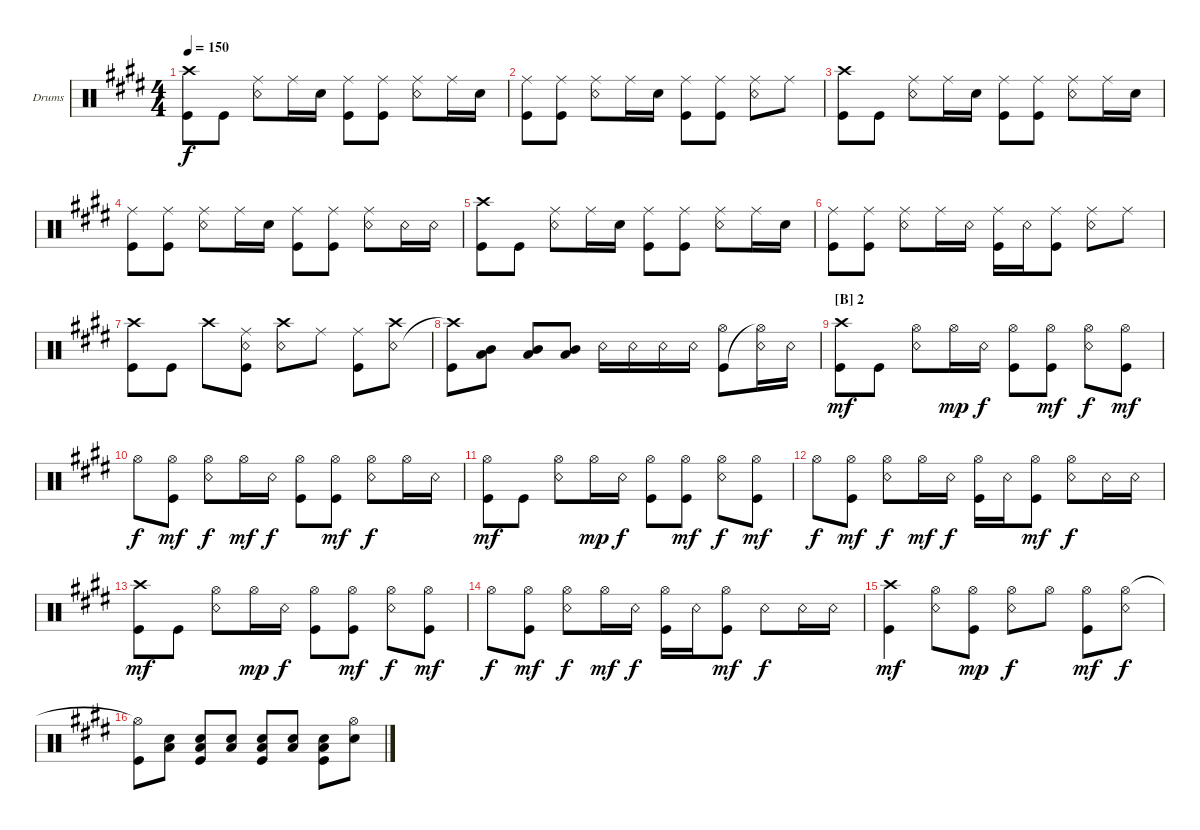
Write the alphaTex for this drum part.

\bracketExtendMode groupsimilarinstruments
\firstSystemTrackNameOrientation horizontal
\otherSystemsTrackNameOrientation horizontal
\track ("Ichigo" "Drums") {instrument percussion}
\staff {score}
\articulation defaults
\ts (4 4)
\tempo 150
\clef neutral
\ks e
("Crash high (hit)" "Kick (hit)").8{dy f} "Kick (hit)".8 ("Snare (rim shot)" "Ride (middle)").8 "Ride (middle)".16 "Snare (hit) 2".16 ("Kick (hit)" "Ride (middle)").8 ("Kick (hit)" "Ride (middle)").8 ("Snare (rim shot)" "Ride (middle)").8 "Ride (middle)".16 "Snare (hit) 2".16 |
("Kick (hit)" "Ride (middle)").8 ("Kick (hit)" "Ride (middle)").8 ("Snare (rim shot)" "Ride (middle)").8 "Ride (middle)".16 "Snare (hit) 2".16 ("Kick (hit)" "Ride (middle)").8 ("Kick (hit)" "Ride (middle)").8 ("Snare (rim shot)" "Ride (middle)").8 "Ride (middle)".8 |
("Crash high (hit)" "Kick (hit)").8 "Kick (hit)".8 ("Snare (rim shot)" "Ride (middle)").8 "Ride (middle)".16 "Snare (hit) 2".16 ("Kick (hit)" "Ride (middle)").8 ("Kick (hit)" "Ride (middle)").8 ("Snare (rim shot)" "Ride (middle)").8 "Ride (middle)".16 "Snare (hit) 2".16 |
("Kick (hit)" "Ride (middle)").8 ("Kick (hit)" "Ride (middle)").8 ("Snare (rim shot)" "Ride (middle)").8 "Ride (middle)".16 "Snare (hit) 2".16 ("Kick (hit)" "Ride (middle)").8 ("Kick (hit)" "Ride (middle)").8 ("Snare (rim shot)" "Ride (middle)").8 "Snare (rim shot)".16 "Snare (rim shot)".16 |
("Crash high (hit)" "Kick (hit)").8 "Kick (hit)".8 ("Snare (rim shot)" "Ride (middle)").8 "Ride (middle)".16 "Snare (hit) 2".16 ("Kick (hit)" "Ride (middle)").8 ("Kick (hit)" "Ride (middle)").8 ("Snare (rim shot)" "Ride (middle)").8 "Ride (middle)".16 "Snare (hit) 2".16 |
("Kick (hit)" "Ride (middle)").8 ("Kick (hit)" "Ride (middle)").8 ("Snare (rim shot)" "Ride (middle)").8 "Ride (middle)".16 "Snare (rim shot)".16 ("Kick (hit)" "Ride (middle)").16 "Snare (rim shot)".16 ("Kick (hit)" "Ride (middle)").8 ("Snare (rim shot)" "Ride (middle)").8 "Ride (middle)".8 |
("Kick (hit)" "Crash high (hit)").8 "Kick (hit)".8 "Crash high (hit)".8 ("Ride (middle)" "Snare (rim shot)" "Kick (hit)").8 ("Snare (rim shot)" "Crash high (hit)").8 "Ride (middle)".8 ("Ride (middle)" "Kick (hit)").8 ("Snare (rim shot)" "Crash high (hit)").8 |
("Crash high (hit)"{t} "Kick (hit)").8 ("Low Tom (hit)" "Mid Tom (hit)").8 ("Mid Tom (hit)" "Low Tom (hit)").8 ("Mid Tom (hit)" "Low Tom (hit)").8 "Snare (rim shot)".16 "Snare (rim shot)".16 "Snare (rim shot)".16 "Snare (rim shot)".16 ("Kick (hit)" "Hi-Hat (open)").8 ("Hi-Hat (open)"{t} "Snare (rim shot)").16 "Snare (rim shot)".16 |
\section ("B" "2")
("Kick (hit)" "Crash high (hit)").8{dy mf} "Kick (hit)".8 ("Snare (rim shot)" "Hi-Hat (open)").8 "Hi-Hat (open)".16{dy mp} "Snare (rim shot)".16{dy f} ("Kick (hit)" "Hi-Hat (open)").8 ("Hi-Hat (open)" "Kick (hit)").8{dy mf} ("Hi-Hat (open)" "Snare (rim shot)").8{dy f} ("Hi-Hat (open)" "Kick (hit)").8{dy mf} |
"Hi-Hat (open)".8{dy f} ("Kick (hit)" "Hi-Hat (open)").8{dy mf} ("Snare (rim shot)" "Hi-Hat (open)").8{dy f} "Hi-Hat (open)".16{dy mf} "Snare (rim shot)".16{dy f} ("Kick (hit)" "Hi-Hat (open)").8 ("Hi-Hat (open)" "Kick (hit)").8{dy mf} ("Snare (rim shot)" "Hi-Hat (open)").8{dy f} "Hi-Hat (open)".16 "Snare (rim shot)".16 |
("Kick (hit)" "Hi-Hat (open)").8{dy mf} "Kick (hit)".8 ("Snare (rim shot)" "Hi-Hat (open)").8 "Hi-Hat (open)".16{dy mp} "Snare (rim shot)".16{dy f} ("Kick (hit)" "Hi-Hat (open)").8 ("Hi-Hat (open)" "Kick (hit)").8{dy mf} ("Hi-Hat (open)" "Snare (rim shot)").8{dy f} ("Hi-Hat (open)" "Kick (hit)").8{dy mf} |
"Hi-Hat (open)".8{dy f} ("Kick (hit)" "Hi-Hat (open)").8{dy mf} ("Snare (rim shot)" "Hi-Hat (open)").8{dy f} "Hi-Hat (open)".16{dy mf} "Snare (rim shot)".16{dy f} ("Kick (hit)" "Hi-Hat (open)").16 "Snare (rim shot)".16 ("Hi-Hat (open)" "Kick (hit)").8{dy mf} ("Snare (rim shot)" "Hi-Hat (open)").8{dy f} "Snare (rim shot)".16 "Snare (rim shot)".16 |
("Kick (hit)" "Crash high (hit)").8{dy mf} "Kick (hit)".8 ("Snare (rim shot)" "Hi-Hat (open)").8 "Hi-Hat (open)".16{dy mp} "Snare (rim shot)".16{dy f} ("Kick (hit)" "Hi-Hat (open)").8 ("Hi-Hat (open)" "Kick (hit)").8{dy mf} ("Hi-Hat (open)" "Snare (rim shot)").8{dy f} ("Hi-Hat (open)" "Kick (hit)").8{dy mf} |
"Hi-Hat (open)".8{dy f} ("Kick (hit)" "Hi-Hat (open)").8{dy mf} ("Snare (rim shot)" "Hi-Hat (open)").8{dy f} "Hi-Hat (open)".16{dy mf} "Snare (rim shot)".16{dy f} ("Kick (hit)" "Hi-Hat (open)").16 "Snare (rim shot)".16 ("Hi-Hat (open)" "Kick (hit)").8{dy mf} "Snare (rim shot)".8{dy f} "Snare (rim shot)".16 "Snare (rim shot)".16 |
("Kick (hit)" "Crash high (hit)").4{dy mf} ("Snare (rim shot)" "Hi-Hat (open)").8 ("Hi-Hat (open)" "Kick (hit)").8{dy mp} ("Snare (rim shot)" "Hi-Hat (open)").8{dy f} "Hi-Hat (open)".8 ("Hi-Hat (open)" "Kick (hit)").8{dy mf} ("Hi-Hat (open)" "Snare (rim shot)").8{dy f} |
("Hi-Hat (open)"{t} "Kick (hit)").8 ("Low Tom (hit)" "Snare (hit) 2").8 ("Low Tom (hit)" "Snare (hit) 2" "Kick (hit)").8 ("Low Tom (hit)" "Snare (hit) 2").8 ("Low Tom (hit)" "Snare (hit) 2" "Kick (hit)").8 ("Low Tom (hit)" "Snare (hit) 2").8 ("Low Tom (hit)" "Snare (hit) 2" "Kick (hit)").8 ("Snare (hit) 2" "Hi-Hat (open)").8
